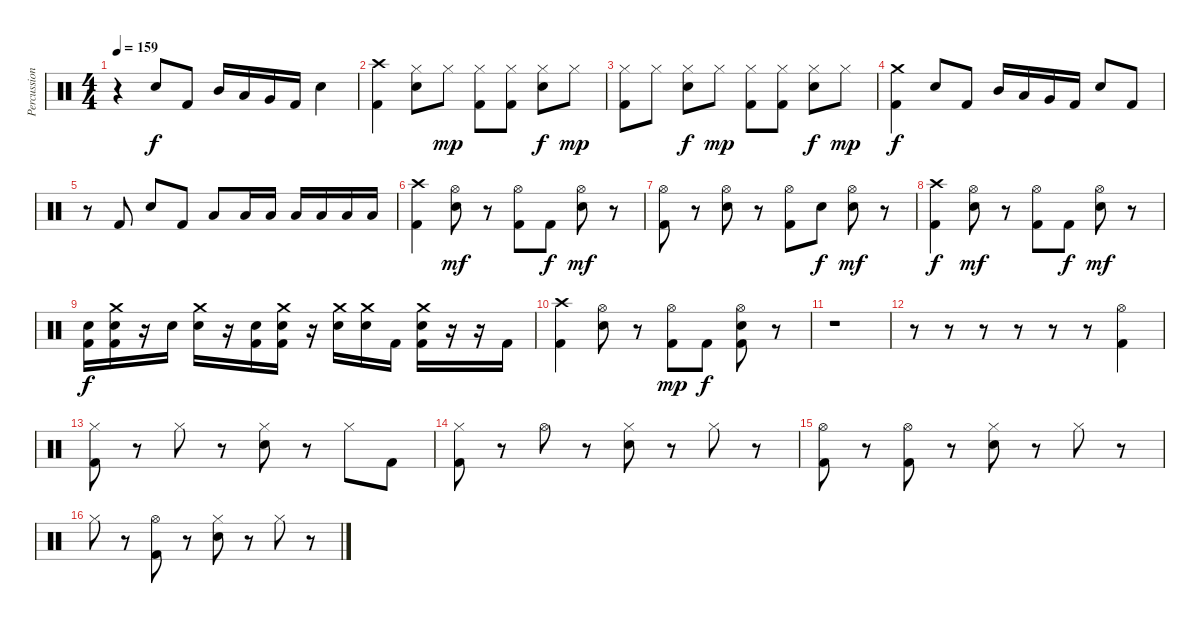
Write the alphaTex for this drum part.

\track ("Percussion" "Percussion") {instrument percussion}
\staff {score}
\articulation defaults
\ts (4 4)
\tempo 159
\clef neutral
\ks c
r.4{dy f} "Electric Snare (hit)".8 "Kick (hit) 2".8 "Mid Tom (hit)".16 "Low Tom (hit)".16 "Very Low Tom (hit)".16 "Kick (hit) 2".16 "Electric Snare (hit)".4 |
("Crash high (hit)" "Kick (hit) 2").4 ("Hi-Hat (closed)" "Electric Snare (hit)").8 "Hi-Hat (closed)".8{dy mp} ("Hi-Hat (closed)" "Kick (hit) 2").8 ("Hi-Hat (closed)" "Kick (hit) 2").8 ("Hi-Hat (closed)" "Electric Snare (hit)").8{dy f} "Hi-Hat (closed)".8{dy mp} |
("Hi-Hat (closed)" "Kick (hit) 2").8 "Hi-Hat (closed)".8 ("Hi-Hat (closed)" "Electric Snare (hit)").8{dy f} "Hi-Hat (closed)".8{dy mp} ("Hi-Hat (closed)" "Kick (hit) 2").8 ("Hi-Hat (closed)" "Kick (hit) 2").8 ("Hi-Hat (closed)" "Electric Snare (hit)").8{dy f} "Hi-Hat (closed)".8{dy mp} |
("Crash medium (hit)" "Kick (hit) 2").4{dy f} "Electric Snare (hit)".8 "Kick (hit) 2".8 "Mid Tom (hit)".16 "Low Tom (hit)".16 "Very Low Tom (hit)".16 "Kick (hit) 2".16 "Electric Snare (hit)".8 "Kick (hit) 2".8 |
r.8 "Kick (hit) 2".8 "Electric Snare (hit)".8 "Kick (hit) 2".8 "Low Tom (hit)".8 "Low Tom (hit)".16 "Low Tom (hit)".16 "Low Tom (hit)".16 "Low Tom (hit)".16 "Low Tom (hit)".16 "Low Tom (hit)".16 |
("Crash high (hit)" "Kick (hit) 2").4 ("Hi-Hat (open)" "Electric Snare (hit)").8{dy mf} r.8 ("Hi-Hat (open)" "Kick (hit) 2").8 "Kick (hit) 2".8{dy f} ("Hi-Hat (open)" "Electric Snare (hit)").8{dy mf} r.8 |
("Hi-Hat (open)" "Kick (hit) 2").8 r.8 ("Hi-Hat (open)" "Electric Snare (hit)").8 r.8 ("Hi-Hat (open)" "Kick (hit) 2").8 "Electric Snare (hit)".8{dy f} ("Hi-Hat (open)" "Electric Snare (hit)").8{dy mf} r.8 |
("Crash high (hit)" "Kick (hit) 2").4{dy f} ("Hi-Hat (open)" "Electric Snare (hit)").8{dy mf} r.8 ("Hi-Hat (open)" "Kick (hit) 2").8 "Kick (hit) 2".8{dy f} ("Hi-Hat (open)" "Electric Snare (hit)").8{dy mf} r.8 |
("Electric Snare (hit)" "Kick (hit) 2").16{dy f} ("Crash medium (hit)" "Electric Snare (hit)" "Kick (hit) 2").16 r.16 "Electric Snare (hit)".16 ("Crash medium (hit)" "Electric Snare (hit)").16 r.16 ("Electric Snare (hit)" "Kick (hit) 2").16 ("Crash medium (hit)" "Electric Snare (hit)" "Kick (hit) 2").16 r.16 ("Crash medium (hit)" "Electric Snare (hit)").16 ("Crash medium (hit)" "Electric Snare (hit)").16 "Kick (hit) 2".16 ("Crash medium (hit)" "Electric Snare (hit)" "Kick (hit) 2").16 r.16 r.16 "Kick (hit) 2".16 |
("Crash high (hit)" "Kick (hit) 2").4 ("Hi-Hat (open)" "Electric Snare (hit)").8 r.8 ("Hi-Hat (open)" "Kick (hit) 2").8{dy mp} "Kick (hit) 2".8{dy f} ("Hi-Hat (open)" "Kick (hit) 2" "Electric Snare (hit)").8 r.8 |
r.1 |
r.8 r.8 r.8 r.8 r.8 r.8 ("Hi-Hat (open)" "Kick (hit) 2").4 |
("Hi-Hat (closed)" "Kick (hit) 2").8 r.8 "Hi-Hat (closed)".8 r.8 ("Hi-Hat (closed)" "Electric Snare (hit)").8 r.8 "Hi-Hat (closed)".8 "Kick (hit) 2".8 |
("Hi-Hat (closed)" "Kick (hit) 2").8 r.8 "Hi-Hat (open)".8 r.8 ("Hi-Hat (closed)" "Electric Snare (hit)").8 r.8 "Hi-Hat (closed)".8 r.8 |
("Hi-Hat (open)" "Kick (hit) 2").8 r.8 ("Hi-Hat (open)" "Kick (hit) 2").8 r.8 ("Hi-Hat (closed)" "Electric Snare (hit)").8 r.8 "Hi-Hat (closed)".8 r.8 |
"Hi-Hat (closed)".8 r.8 ("Hi-Hat (open)" "Kick (hit) 2").8 r.8 ("Hi-Hat (closed)" "Electric Snare (hit)").8 r.8 "Hi-Hat (closed)".8 r.8
